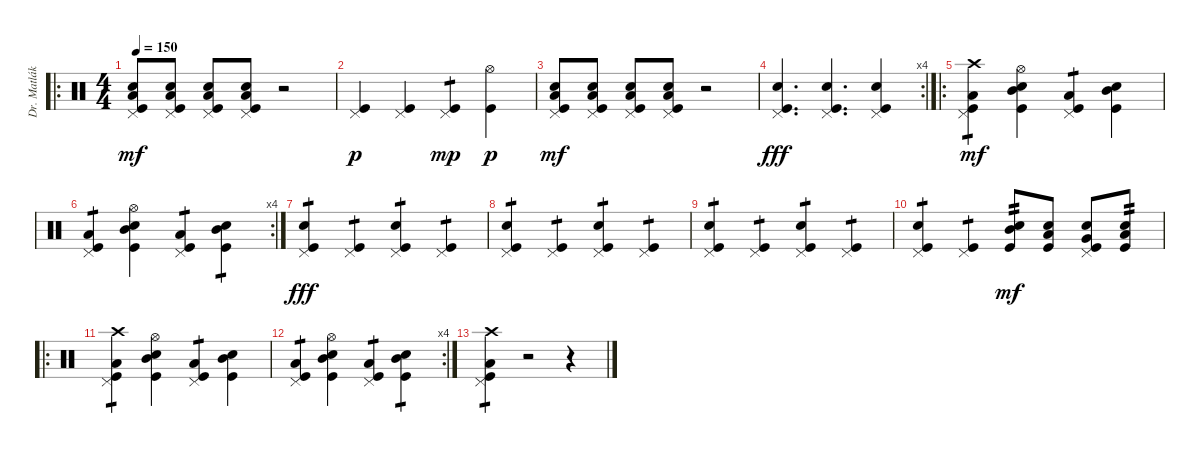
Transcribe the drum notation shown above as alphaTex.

\track ("Dr. Matlák" "Dr. Matlák") {instrument percussion}
\staff {score}
\articulation defaults
\ro
\ts (4 4)
\tempo 150
\clef neutral
\ks c
("Pedal Hi-Hat (hit)" "Electric Snare (hit)" "Low Tom (hit)" "Kick (hit)").8{dy mf} ("Pedal Hi-Hat (hit)" "Electric Snare (hit)" "Low Tom (hit)" "Kick (hit)").8 ("Pedal Hi-Hat (hit)" "Electric Snare (hit)" "Low Tom (hit)" "Kick (hit)").8 ("Pedal Hi-Hat (hit)" "Electric Snare (hit)" "Low Tom (hit)" "Kick (hit)").8 r.2 |
("Pedal Hi-Hat (hit)" "Kick (hit)").4{dy p} ("Pedal Hi-Hat (hit)" "Kick (hit)").4 ("Pedal Hi-Hat (hit)" "Kick (hit)").4{tp 1 dy mp} ("Hi-Hat (open)" "Kick (hit)").4{dy p} |
("Pedal Hi-Hat (hit)" "Electric Snare (hit)" "Low Tom (hit)" "Kick (hit)").8{dy mf} ("Pedal Hi-Hat (hit)" "Electric Snare (hit)" "Low Tom (hit)" "Kick (hit)").8 ("Pedal Hi-Hat (hit)" "Electric Snare (hit)" "Low Tom (hit)" "Kick (hit)").8 ("Pedal Hi-Hat (hit)" "Electric Snare (hit)" "Low Tom (hit)" "Kick (hit)").8 r.2 |
\rc 4
("Electric Snare (hit)" "Pedal Hi-Hat (hit)" "Kick (hit)").4{d dy fff} ("Electric Snare (hit)" "Pedal Hi-Hat (hit)" "Kick (hit)").4{d} ("Electric Snare (hit)" "Pedal Hi-Hat (hit)" "Kick (hit)").4 |
\ro
("Crash high (hit)" "Pedal Hi-Hat (hit)" "Low Tom (hit)" "Kick (hit)").4{tp 1 dy mf} ("Hi-Hat (open)" "Electric Snare (hit)" "Mid Tom (hit)" "Kick (hit)").4 ("Pedal Hi-Hat (hit)" "Low Tom (hit)" "Kick (hit)").4{tp 1} ("Electric Snare (hit)" "Mid Tom (hit)" "Kick (hit)").4 |
\rc 4
("Pedal Hi-Hat (hit)" "Low Tom (hit)" "Kick (hit)").4{tp 1} ("Hi-Hat (open)" "Electric Snare (hit)" "Mid Tom (hit)" "Kick (hit)").4 ("Pedal Hi-Hat (hit)" "Low Tom (hit)" "Kick (hit)").4{tp 1} ("Electric Snare (hit)" "Mid Tom (hit)" "Kick (hit)").4{tp 1} |
("Pedal Hi-Hat (hit)" "Electric Snare (hit)" "Kick (hit)").4{tp 1 dy fff} ("Pedal Hi-Hat (hit)" "Kick (hit)").4{tp 1} ("Pedal Hi-Hat (hit)" "Electric Snare (hit)" "Kick (hit)").4{tp 1} ("Pedal Hi-Hat (hit)" "Kick (hit)").4{tp 1} |
("Pedal Hi-Hat (hit)" "Electric Snare (hit)" "Kick (hit)").4{tp 1} ("Pedal Hi-Hat (hit)" "Kick (hit)").4{tp 1} ("Pedal Hi-Hat (hit)" "Electric Snare (hit)" "Kick (hit)").4{tp 1} ("Pedal Hi-Hat (hit)" "Kick (hit)").4{tp 1} |
("Pedal Hi-Hat (hit)" "Electric Snare (hit)" "Kick (hit)").4{tp 1} ("Pedal Hi-Hat (hit)" "Kick (hit)").4{tp 1} ("Pedal Hi-Hat (hit)" "Electric Snare (hit)" "Kick (hit)").4{tp 1} ("Pedal Hi-Hat (hit)" "Kick (hit)").4{tp 1} |
("Pedal Hi-Hat (hit)" "Electric Snare (hit)" "Kick (hit)").4{tp 1} ("Pedal Hi-Hat (hit)" "Kick (hit)").4{tp 1} ("Mid Tom (hit)" "Electric Snare (hit)" "Kick (hit)").8{tp 2 dy mf} ("Low Tom (hit)" "Electric Snare (hit)" "Kick (hit)").8 ("Very Low Tom (hit)" "Pedal Hi-Hat (hit)" "Electric Snare (hit)" "Kick (hit)").8 ("Low Floor Tom (hit)" "Electric Snare (hit)" "Kick (hit)").8{tp 2} |
\ro
("Crash high (hit)" "Pedal Hi-Hat (hit)" "Low Tom (hit)" "Kick (hit)").4{tp 1} ("Hi-Hat (open)" "Electric Snare (hit)" "Mid Tom (hit)" "Kick (hit)").4 ("Pedal Hi-Hat (hit)" "Low Tom (hit)" "Kick (hit)").4{tp 1} ("Electric Snare (hit)" "Mid Tom (hit)" "Kick (hit)").4 |
\rc 4
("Pedal Hi-Hat (hit)" "Low Tom (hit)" "Kick (hit)").4{tp 1} ("Hi-Hat (open)" "Electric Snare (hit)" "Mid Tom (hit)" "Kick (hit)").4 ("Pedal Hi-Hat (hit)" "Low Tom (hit)" "Kick (hit)").4{tp 1} ("Electric Snare (hit)" "Mid Tom (hit)" "Kick (hit)").4{tp 1} |
("Crash high (hit)" "Pedal Hi-Hat (hit)" "Low Tom (hit)" "Kick (hit)").4{tp 1} r.2 r.4
